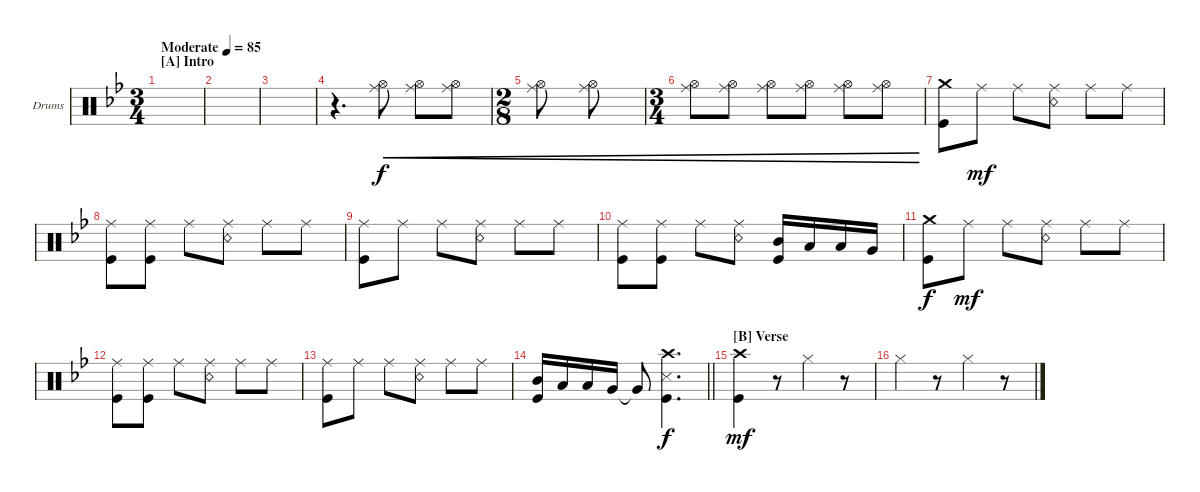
\bracketExtendMode groupsimilarinstruments
\firstSystemTrackNameOrientation horizontal
\otherSystemsTrackNameOrientation horizontal
\track ("Drums" "Drums") {instrument percussion}
\staff {score}
\articulation defaults
\ts (3 4)
\section ("A" "Intro")
\tempo (85 "Moderate")
\clef neutral
\ks bb
|
|
|
r.4{d} ("Ride (middle)" "Hi-Hat (open)").8{cre} ("Ride (middle)" "Hi-Hat (open)").8{cre} ("Ride (middle)" "Hi-Hat (open)").8{cre} |
\ts (2 8)
("Ride (middle)" "Hi-Hat (open)").8{cre} ("Ride (middle)" "Hi-Hat (open)").8{cre} |
\ts (3 4)
("Ride (middle)" "Hi-Hat (open)").8{cre} ("Ride (middle)" "Hi-Hat (open)").8{cre} ("Ride (middle)" "Hi-Hat (open)").8{cre} ("Ride (middle)" "Hi-Hat (open)").8{cre} ("Ride (middle)" "Hi-Hat (open)").8{cre} ("Ride (middle)" "Hi-Hat (open)").8{cre} |
\scale
0.262911 ("Crash medium (hit)" "Kick (hit)").8{dy f} "Ride (middle)".8{dy mf} "Ride (middle)".8 ("Snare (rim shot)" "Ride (middle)").8 "Ride (middle)".8 "Ride (middle)".8 |
\scale
0.262911 ("Kick (hit)" "Ride (middle)").8 ("Kick (hit)" "Ride (middle)").8 "Ride (middle)".8 ("Snare (rim shot)" "Ride (middle)").8 "Ride (middle)".8 "Ride (middle)".8 |
\scale
0.333333 ("Kick (hit)" "Ride (middle)").8 "Ride (middle)".8 "Ride (middle)".8 ("Snare (rim shot)" "Ride (middle)").8 "Ride (middle)".8 "Ride (middle)".8 |
\scale
0.333333 ("Kick (hit)" "Ride (middle)").8 ("Kick (hit)" "Ride (middle)").8 "Ride (middle)".8 ("Snare (rim shot)" "Ride (middle)").8 ("Mid Tom (hit)" "Kick (hit)").16 "Low Tom (hit)".16 "Low Tom (hit)".16 "Very Low Tom (hit)".16 |
\scale
0.333333 ("Crash medium (hit)" "Kick (hit)").8{dy f} "Ride (middle)".8{dy mf} "Ride (middle)".8 ("Snare (rim shot)" "Ride (middle)").8 "Ride (middle)".8 "Ride (middle)".8 |
\scale
0.333333 ("Kick (hit)" "Ride (middle)").8 ("Kick (hit)" "Ride (middle)").8 "Ride (middle)".8 ("Snare (rim shot)" "Ride (middle)").8 "Ride (middle)".8 "Ride (middle)".8 |
\scale
0.333333 ("Kick (hit)" "Ride (middle)").8 "Ride (middle)".8 "Ride (middle)".8 ("Snare (rim shot)" "Ride (middle)").8 "Ride (middle)".8 "Ride (middle)".8 |
\scale
0.333333
\barLineRight lightlight
("Mid Tom (hit)" "Kick (hit)").16 "Low Tom (hit)".16 "Low Tom (hit)".16 "Very Low Tom (hit)".16 "Very Low Tom (hit)"{t}.8 ("Kick (hit)" "Snare (side stick) 3" "Crash high (hit)").4{d dy f} |
\section ("B" "Verse")
\scale
0.333333 ("Kick (hit)" "Crash high (hit)").4{dy mf} r.8 "Hi-Hat (closed)".4 r.8 |
\scale
0.333333 "Hi-Hat (closed)".4 r.8 "Hi-Hat (closed)".4 r.8
